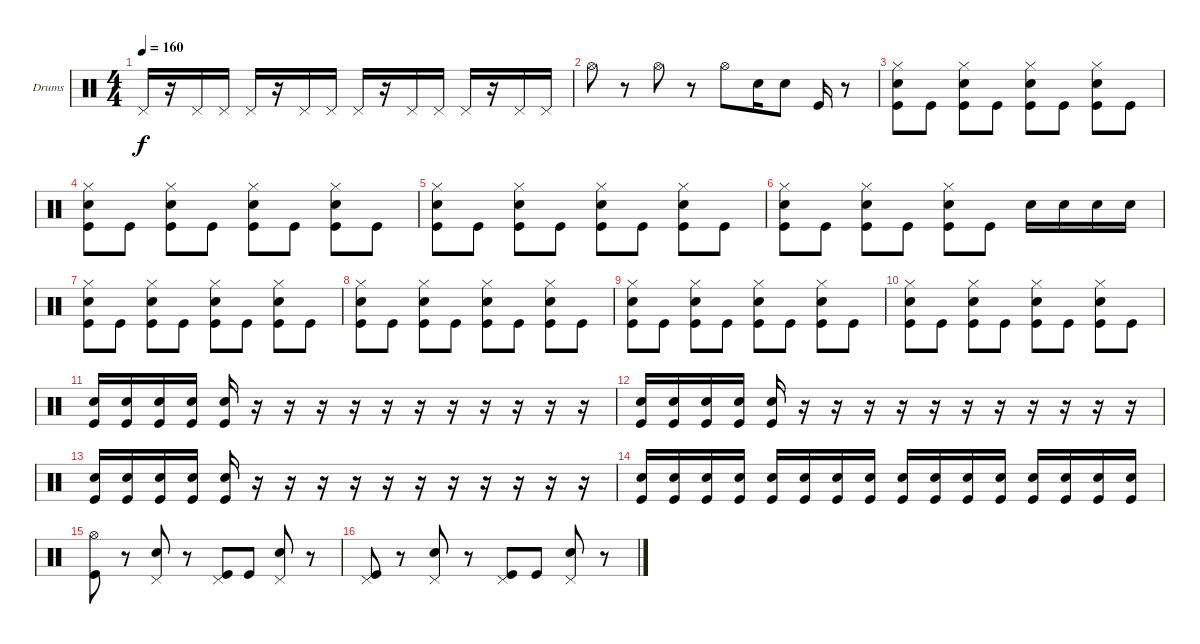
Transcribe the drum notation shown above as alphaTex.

\defaultSystemsLayout 4
\bracketExtendMode groupsimilarinstruments
\firstSystemTrackNameOrientation horizontal
\otherSystemsTrackNameOrientation horizontal
\track ("Drumkit" "Drums") {solo instrument percussion}
\staff {score}
\articulation defaults
\ts (4 4)
\tempo 160
\clef neutral
\ks c "Pedal Hi-Hat (hit)".16{dy f}
r.16 "Pedal Hi-Hat (hit)".16 "Pedal Hi-Hat (hit)".16 "Pedal Hi-Hat (hit)".16 r.16 "Pedal Hi-Hat (hit)".16 "Pedal Hi-Hat (hit)".16 "Pedal Hi-Hat (hit)".16 r.16 "Pedal Hi-Hat (hit)".16 "Pedal Hi-Hat (hit)".16 "Pedal Hi-Hat (hit)".16 r.16 "Pedal Hi-Hat (hit)".16 "Pedal Hi-Hat (hit)".16 |
"Hi-Hat (open)".8 r.8 "Hi-Hat (open)".8 r.8 "Hi-Hat (open)".8 "Snare (hit) 2".16 "Snare (hit) 2".8 "Kick (hit)".16 r.8 |
("Hi-Hat (closed)" "Snare (hit) 2" "Kick (hit)").8 "Kick (hit)".8 ("Hi-Hat (closed)" "Snare (hit) 2" "Kick (hit)").8 "Kick (hit)".8 ("Hi-Hat (closed)" "Snare (hit) 2" "Kick (hit)").8 "Kick (hit)".8 ("Hi-Hat (closed)" "Snare (hit) 2" "Kick (hit)").8 "Kick (hit)".8 |
("Hi-Hat (closed)" "Snare (hit) 2" "Kick (hit)").8 "Kick (hit)".8 ("Hi-Hat (closed)" "Snare (hit) 2" "Kick (hit)").8 "Kick (hit)".8 ("Hi-Hat (closed)" "Snare (hit) 2" "Kick (hit)").8 "Kick (hit)".8 ("Hi-Hat (closed)" "Snare (hit) 2" "Kick (hit)").8 "Kick (hit)".8 |
("Hi-Hat (closed)" "Snare (hit) 2" "Kick (hit)").8 "Kick (hit)".8 ("Hi-Hat (closed)" "Snare (hit) 2" "Kick (hit)").8 "Kick (hit)".8 ("Hi-Hat (closed)" "Snare (hit) 2" "Kick (hit)").8 "Kick (hit)".8 ("Hi-Hat (closed)" "Snare (hit) 2" "Kick (hit)").8 "Kick (hit)".8 |
("Hi-Hat (closed)" "Snare (hit) 2" "Kick (hit)").8 "Kick (hit)".8 ("Hi-Hat (closed)" "Snare (hit) 2" "Kick (hit)").8 "Kick (hit)".8 ("Hi-Hat (closed)" "Snare (hit) 2" "Kick (hit)").8 "Kick (hit)".8 "Snare (hit) 2".16 "Snare (hit) 2".16 "Snare (hit) 2".16 "Snare (hit) 2".16 |
("Hi-Hat (closed)" "Snare (hit) 2" "Kick (hit)").8 "Kick (hit)".8 ("Hi-Hat (closed)" "Snare (hit) 2" "Kick (hit)").8 "Kick (hit)".8 ("Hi-Hat (closed)" "Snare (hit) 2" "Kick (hit)").8 "Kick (hit)".8 ("Hi-Hat (closed)" "Snare (hit) 2" "Kick (hit)").8 "Kick (hit)".8 |
("Hi-Hat (closed)" "Snare (hit) 2" "Kick (hit)").8 "Kick (hit)".8 ("Hi-Hat (closed)" "Snare (hit) 2" "Kick (hit)").8 "Kick (hit)".8 ("Hi-Hat (closed)" "Snare (hit) 2" "Kick (hit)").8 "Kick (hit)".8 ("Hi-Hat (closed)" "Snare (hit) 2" "Kick (hit)").8 "Kick (hit)".8 |
("Hi-Hat (closed)" "Snare (hit) 2" "Kick (hit)").8 "Kick (hit)".8 ("Hi-Hat (closed)" "Snare (hit) 2" "Kick (hit)").8 "Kick (hit)".8 ("Hi-Hat (closed)" "Snare (hit) 2" "Kick (hit)").8 "Kick (hit)".8 ("Hi-Hat (closed)" "Snare (hit) 2" "Kick (hit)").8 "Kick (hit)".8 |
("Hi-Hat (closed)" "Snare (hit) 2" "Kick (hit)").8 "Kick (hit)".8 ("Hi-Hat (closed)" "Snare (hit) 2" "Kick (hit)").8 "Kick (hit)".8 ("Hi-Hat (closed)" "Snare (hit) 2" "Kick (hit)").8 "Kick (hit)".8 ("Hi-Hat (closed)" "Snare (hit) 2" "Kick (hit)").8 "Kick (hit)".8 |
("Snare (hit) 2" "Kick (hit)").16 ("Snare (hit) 2" "Kick (hit)").16 ("Snare (hit) 2" "Kick (hit)").16 ("Snare (hit) 2" "Kick (hit)").16 ("Snare (hit) 2" "Kick (hit)").16 r.16 r.16 r.16 r.16 r.16 r.16 r.16 r.16 r.16 r.16 r.16 |
("Snare (hit) 2" "Kick (hit)").16 ("Snare (hit) 2" "Kick (hit)").16 ("Snare (hit) 2" "Kick (hit)").16 ("Snare (hit) 2" "Kick (hit)").16 ("Snare (hit) 2" "Kick (hit)").16 r.16 r.16 r.16 r.16 r.16 r.16 r.16 r.16 r.16 r.16 r.16 |
("Snare (hit) 2" "Kick (hit)").16 ("Snare (hit) 2" "Kick (hit)").16 ("Snare (hit) 2" "Kick (hit)").16 ("Snare (hit) 2" "Kick (hit)").16 ("Snare (hit) 2" "Kick (hit)").16 r.16 r.16 r.16 r.16 r.16 r.16 r.16 r.16 r.16 r.16 r.16 |
("Snare (hit) 2" "Kick (hit)").16 ("Snare (hit) 2" "Kick (hit)").16 ("Snare (hit) 2" "Kick (hit)").16 ("Snare (hit) 2" "Kick (hit)").16 ("Snare (hit) 2" "Kick (hit)").16 ("Snare (hit) 2" "Kick (hit)").16 ("Snare (hit) 2" "Kick (hit)").16 ("Snare (hit) 2" "Kick (hit)").16 ("Snare (hit) 2" "Kick (hit)").16 ("Snare (hit) 2" "Kick (hit)").16 ("Snare (hit) 2" "Kick (hit)").16 ("Snare (hit) 2" "Kick (hit)").16 ("Snare (hit) 2" "Kick (hit)").16 ("Snare (hit) 2" "Kick (hit)").16 ("Snare (hit) 2" "Kick (hit)").16 ("Snare (hit) 2" "Kick (hit)").16 |
("Hi-Hat (open)" "Kick (hit)").8 r.8 ("Pedal Hi-Hat (hit)" "Snare (hit) 2").8 r.8 ("Pedal Hi-Hat (hit)" "Kick (hit)").8 "Kick (hit)".8 ("Pedal Hi-Hat (hit)" "Snare (hit) 2").8 r.8 |
("Pedal Hi-Hat (hit)" "Kick (hit)").8 r.8 ("Pedal Hi-Hat (hit)" "Snare (hit) 2").8 r.8 ("Pedal Hi-Hat (hit)" "Kick (hit)").8 "Kick (hit)".8 ("Pedal Hi-Hat (hit)" "Snare (hit) 2").8 r.8
